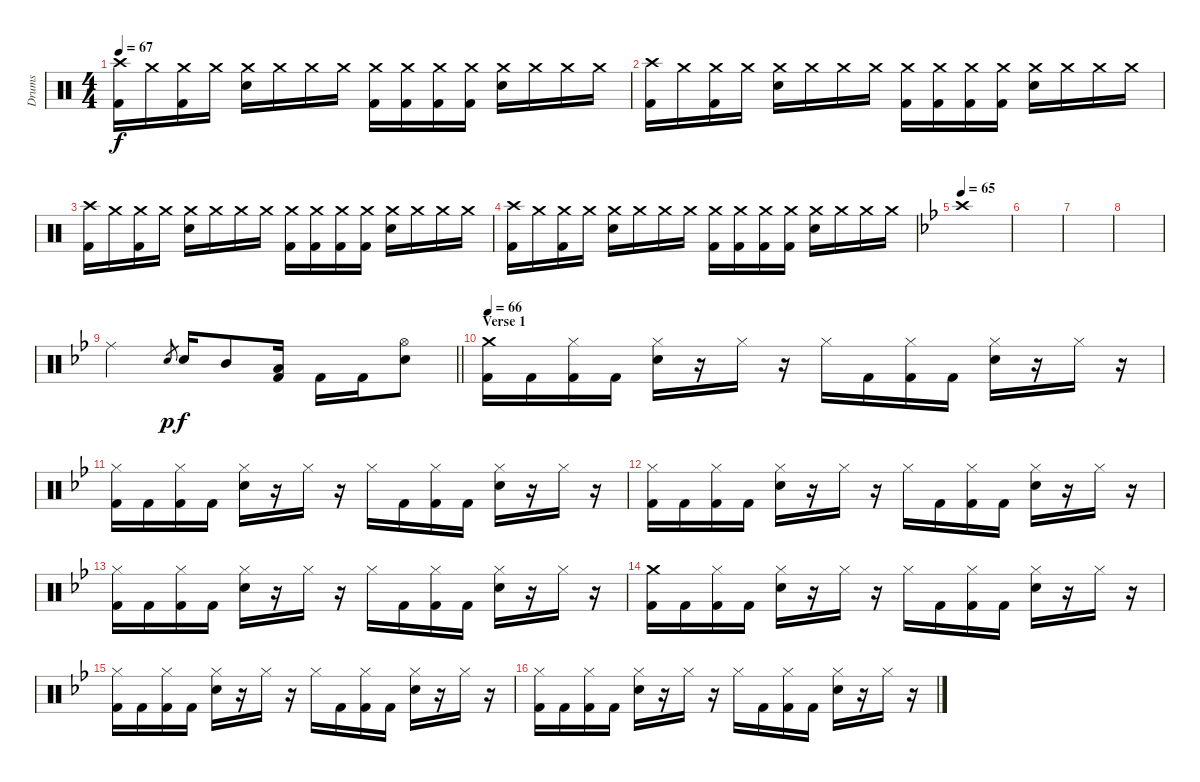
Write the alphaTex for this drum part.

\track ("Drums" "Drums") {instrument percussion}
\staff {score}
\articulation defaults
\ts (4 4)
\tempo 67
\clef neutral
\ks c
("Crash high (hit)" "Kick (hit) 2").16{dy f} "Crash medium (hit)".16 ("Crash medium (hit)" "Kick (hit) 2").16 "Crash medium (hit)".16 ("Crash medium (hit)" "Electric Snare (hit)").16 "Crash medium (hit)".16 "Crash medium (hit)".16 "Crash medium (hit)".16 ("Crash medium (hit)" "Kick (hit) 2").16 ("Crash medium (hit)" "Kick (hit) 2").16 ("Crash medium (hit)" "Kick (hit) 2").16 ("Crash medium (hit)" "Kick (hit) 2").16 ("Crash medium (hit)" "Electric Snare (hit)").16 "Crash medium (hit)".16 "Crash medium (hit)".16 "Crash medium (hit)".16 |
("Crash high (hit)" "Kick (hit) 2").16 "Crash medium (hit)".16 ("Crash medium (hit)" "Kick (hit) 2").16 "Crash medium (hit)".16 ("Crash medium (hit)" "Electric Snare (hit)").16 "Crash medium (hit)".16 "Crash medium (hit)".16 "Crash medium (hit)".16 ("Crash medium (hit)" "Kick (hit) 2").16 ("Crash medium (hit)" "Kick (hit) 2").16 ("Crash medium (hit)" "Kick (hit) 2").16 ("Crash medium (hit)" "Kick (hit) 2").16 ("Crash medium (hit)" "Electric Snare (hit)").16 "Crash medium (hit)".16 "Crash medium (hit)".16 "Crash medium (hit)".16 |
("Crash high (hit)" "Kick (hit) 2").16 "Crash medium (hit)".16 ("Crash medium (hit)" "Kick (hit) 2").16 "Crash medium (hit)".16 ("Crash medium (hit)" "Electric Snare (hit)").16 "Crash medium (hit)".16 "Crash medium (hit)".16 "Crash medium (hit)".16 ("Crash medium (hit)" "Kick (hit) 2").16 ("Crash medium (hit)" "Kick (hit) 2").16 ("Crash medium (hit)" "Kick (hit) 2").16 ("Crash medium (hit)" "Kick (hit) 2").16 ("Crash medium (hit)" "Electric Snare (hit)").16 "Crash medium (hit)".16 "Crash medium (hit)".16 "Crash medium (hit)".16 |
("Crash high (hit)" "Kick (hit) 2").16 "Crash medium (hit)".16 ("Crash medium (hit)" "Kick (hit) 2").16 "Crash medium (hit)".16 ("Crash medium (hit)" "Electric Snare (hit)").16 "Crash medium (hit)".16 "Crash medium (hit)".16 "Crash medium (hit)".16 ("Crash medium (hit)" "Kick (hit) 2").16 ("Crash medium (hit)" "Kick (hit) 2").16 ("Crash medium (hit)" "Kick (hit) 2").16 ("Crash medium (hit)" "Kick (hit) 2").16 ("Crash medium (hit)" "Electric Snare (hit)").16 "Crash medium (hit)".16 "Crash medium (hit)".16 "Crash medium (hit)".16 |
\tempo 65
\ks bb "Crash high (hit)".1
|
|
|
|
\barLineRight lightlight "Ride (middle)".2 "Electric Snare (hit)".8{gr dy p} "Electric Snare (hit)".16{dy f} "Mid Tom (hit)".8
("Low Tom (hit)" "Kick (hit) 2").16 "Kick (hit) 2".16 "Kick (hit) 2".16 ("Hi-Hat (open)" "Electric Snare (hit)").8 |
\section ("" "Verse 1")
\tempo 66
("Crash medium (hit)" "Kick (hit) 2").16 "Kick (hit) 2".16 ("Hi-Hat (closed)" "Kick (hit) 2").16 "Kick (hit) 2".16 ("Hi-Hat (closed)" "Electric Snare (hit)").16 r.16 "Hi-Hat (closed)".16 r.16 "Hi-Hat (closed)".16 "Kick (hit) 2".16 ("Hi-Hat (closed)" "Kick (hit) 2").16 "Kick (hit) 2".16 ("Hi-Hat (closed)" "Electric Snare (hit)").16 r.16 "Hi-Hat (closed)".16 r.16 |
("Hi-Hat (closed)" "Kick (hit) 2").16 "Kick (hit) 2".16 ("Hi-Hat (closed)" "Kick (hit) 2").16 "Kick (hit) 2".16 ("Hi-Hat (closed)" "Electric Snare (hit)").16 r.16 "Hi-Hat (closed)".16 r.16 "Hi-Hat (closed)".16 "Kick (hit) 2".16 ("Hi-Hat (closed)" "Kick (hit) 2").16 "Kick (hit) 2".16 ("Hi-Hat (closed)" "Electric Snare (hit)").16 r.16 "Hi-Hat (closed)".16 r.16 |
("Hi-Hat (closed)" "Kick (hit) 2").16 "Kick (hit) 2".16 ("Hi-Hat (closed)" "Kick (hit) 2").16 "Kick (hit) 2".16 ("Hi-Hat (closed)" "Electric Snare (hit)").16 r.16 "Hi-Hat (closed)".16 r.16 "Hi-Hat (closed)".16 "Kick (hit) 2".16 ("Hi-Hat (closed)" "Kick (hit) 2").16 "Kick (hit) 2".16 ("Hi-Hat (closed)" "Electric Snare (hit)").16 r.16 "Hi-Hat (closed)".16 r.16 |
("Hi-Hat (closed)" "Kick (hit) 2").16 "Kick (hit) 2".16 ("Hi-Hat (closed)" "Kick (hit) 2").16 "Kick (hit) 2".16 ("Hi-Hat (closed)" "Electric Snare (hit)").16 r.16 "Hi-Hat (closed)".16 r.16 "Hi-Hat (closed)".16 "Kick (hit) 2".16 ("Hi-Hat (closed)" "Kick (hit) 2").16 "Kick (hit) 2".16 ("Hi-Hat (closed)" "Electric Snare (hit)").16 r.16 "Hi-Hat (closed)".16 r.16 |
("Crash medium (hit)" "Kick (hit) 2").16 "Kick (hit) 2".16 ("Hi-Hat (closed)" "Kick (hit) 2").16 "Kick (hit) 2".16 ("Hi-Hat (closed)" "Electric Snare (hit)").16 r.16 "Hi-Hat (closed)".16 r.16 "Hi-Hat (closed)".16 "Kick (hit) 2".16 ("Hi-Hat (closed)" "Kick (hit) 2").16 "Kick (hit) 2".16 ("Hi-Hat (closed)" "Electric Snare (hit)").16 r.16 "Hi-Hat (closed)".16 r.16 |
("Hi-Hat (closed)" "Kick (hit) 2").16 "Kick (hit) 2".16 ("Hi-Hat (closed)" "Kick (hit) 2").16 "Kick (hit) 2".16 ("Hi-Hat (closed)" "Electric Snare (hit)").16 r.16 "Hi-Hat (closed)".16 r.16 "Hi-Hat (closed)".16 "Kick (hit) 2".16 ("Hi-Hat (closed)" "Kick (hit) 2").16 "Kick (hit) 2".16 ("Hi-Hat (closed)" "Electric Snare (hit)").16 r.16 "Hi-Hat (closed)".16 r.16 |
("Hi-Hat (closed)" "Kick (hit) 2").16 "Kick (hit) 2".16 ("Hi-Hat (closed)" "Kick (hit) 2").16 "Kick (hit) 2".16 ("Hi-Hat (closed)" "Electric Snare (hit)").16 r.16 "Hi-Hat (closed)".16 r.16 "Hi-Hat (closed)".16 "Kick (hit) 2".16 ("Hi-Hat (closed)" "Kick (hit) 2").16 "Kick (hit) 2".16 ("Hi-Hat (closed)" "Electric Snare (hit)").16 r.16 "Hi-Hat (closed)".16 r.16
